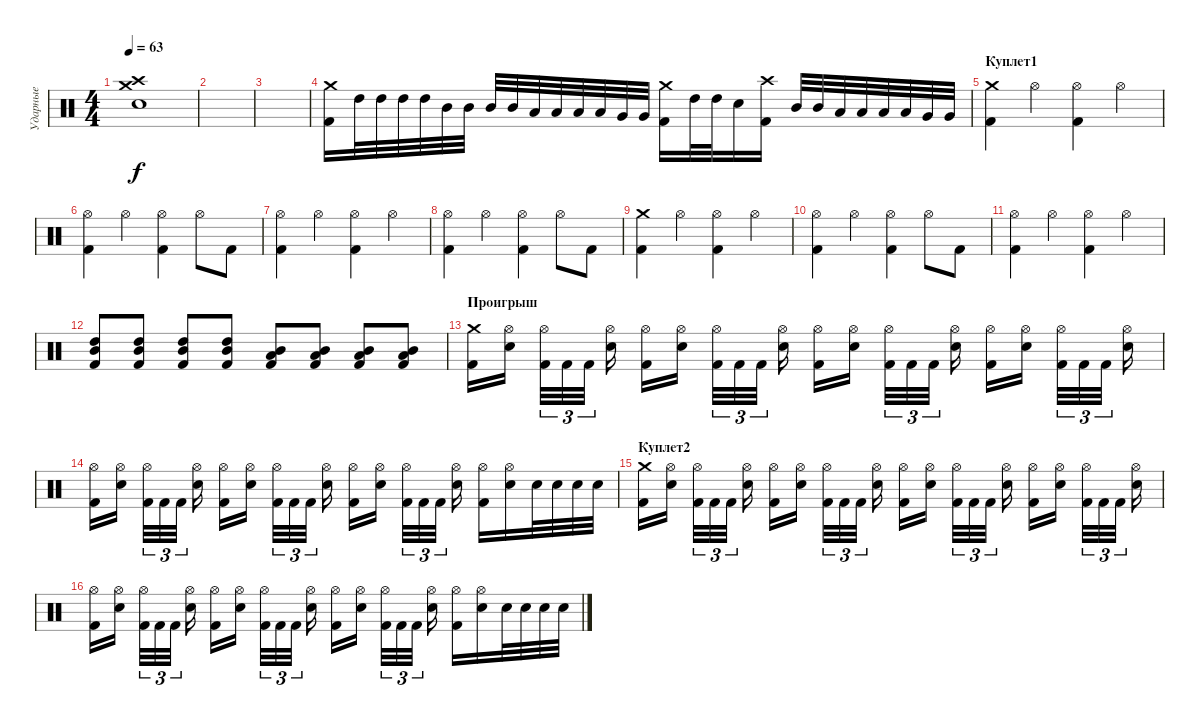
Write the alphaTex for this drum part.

\track ("Ударные" "Ударные") {instrument percussion}
\staff {score}
\articulation defaults
\ts (4 4)
\tempo 63
\clef neutral
\ks c
("Crash high (hit)" "Crash medium (hit)" "Snare (hit) 2").1{dy f} |
|
|
("Kick (hit) 2" "Crash medium (hit)").16 "High Tom (hit)".32 "High Tom (hit)".32 "High Tom (hit)".32 "High Tom (hit)".32 "Mid Tom (hit)".32 "Mid Tom (hit)".32 "Mid Tom (hit)".32 "Mid Tom (hit)".32 "Low Tom (hit)".32 "Low Tom (hit)".32 "Low Tom (hit)".32 "Low Tom (hit)".32 "Very Low Tom (hit)".32 "Very Low Tom (hit)".32 ("Kick (hit) 2" "Crash medium (hit)").16 "High Tom (hit)".32 "High Tom (hit)".32 "Electric Snare (hit)".16 ("Kick (hit) 2" "Crash high (hit)").16 "Mid Tom (hit)".32 "Mid Tom (hit)".32 "Low Tom (hit)".32 "Low Tom (hit)".32 "Low Tom (hit)".32 "Low Tom (hit)".32 "Very Low Tom (hit)".32 "Very Low Tom (hit)".32 |
\section ("" "Куплет1")
("Kick (hit) 2" "Crash medium (hit)").4 "Hi-Hat (open)".4 ("Kick (hit) 2" "Hi-Hat (open)").4 "Hi-Hat (open)".4 |
("Kick (hit) 2" "Hi-Hat (open)").4 "Hi-Hat (open)".4 ("Kick (hit) 2" "Hi-Hat (open)").4 "Hi-Hat (open)".8 "Kick (hit) 2".8 |
("Kick (hit) 2" "Hi-Hat (open)").4 "Hi-Hat (open)".4 ("Kick (hit) 2" "Hi-Hat (open)").4 "Hi-Hat (open)".4 |
("Kick (hit) 2" "Hi-Hat (open)").4 "Hi-Hat (open)".4 ("Kick (hit) 2" "Hi-Hat (open)").4 "Hi-Hat (open)".8 "Kick (hit) 2".8 |
("Kick (hit) 2" "Crash medium (hit)").4 "Hi-Hat (open)".4 ("Kick (hit) 2" "Hi-Hat (open)").4 "Hi-Hat (open)".4 |
("Kick (hit) 2" "Hi-Hat (open)").4 "Hi-Hat (open)".4 ("Kick (hit) 2" "Hi-Hat (open)").4 "Hi-Hat (open)".8 "Kick (hit) 2".8 |
("Kick (hit) 2" "Hi-Hat (open)").4 "Hi-Hat (open)".4 ("Kick (hit) 2" "Hi-Hat (open)").4 "Hi-Hat (open)".4 |
("Kick (hit) 2" "High Tom (hit)" "Mid Tom (hit)").8 ("Kick (hit) 2" "High Tom (hit)" "Mid Tom (hit)").8 ("Kick (hit) 2" "High Tom (hit)" "Mid Tom (hit)").8 ("Kick (hit) 2" "High Tom (hit)" "Mid Tom (hit)").8 ("Kick (hit) 2" "Mid Tom (hit)" "Low Tom (hit)").8 ("Kick (hit) 2" "Mid Tom (hit)" "Low Tom (hit)").8 ("Kick (hit) 2" "Mid Tom (hit)" "Low Tom (hit)").8 ("Kick (hit) 2" "Mid Tom (hit)" "Low Tom (hit)").8 |
\section ("" "Проигрыш")
("Kick (hit) 2" "Crash medium (hit)").16 ("Snare (hit) 2" "Hi-Hat (open)").16 ("Kick (hit) 2" "Hi-Hat (open)").32{tu (3 2)} "Kick (hit) 2".32{tu (3 2)} "Kick (hit) 2".32{tu (3 2)} ("Snare (hit) 2" "Hi-Hat (open)").16 ("Kick (hit) 2" "Hi-Hat (open)").16 ("Snare (hit) 2" "Hi-Hat (open)").16 ("Kick (hit) 2" "Hi-Hat (open)").32{tu (3 2)} "Kick (hit) 2".32{tu (3 2)} "Kick (hit) 2".32{tu (3 2)} ("Snare (hit) 2" "Hi-Hat (open)").16 ("Kick (hit) 2" "Hi-Hat (open)").16 ("Snare (hit) 2" "Hi-Hat (open)").16 ("Kick (hit) 2" "Hi-Hat (open)").32{tu (3 2)} "Kick (hit) 2".32{tu (3 2)} "Kick (hit) 2".32{tu (3 2)} ("Snare (hit) 2" "Hi-Hat (open)").16 ("Kick (hit) 2" "Hi-Hat (open)").16 ("Snare (hit) 2" "Hi-Hat (open)").16 ("Kick (hit) 2" "Hi-Hat (open)").32{tu (3 2)} "Kick (hit) 2".32{tu (3 2)} "Kick (hit) 2".32{tu (3 2)} ("Snare (hit) 2" "Hi-Hat (open)").16 |
("Kick (hit) 2" "Hi-Hat (open)").16 ("Snare (hit) 2" "Hi-Hat (open)").16 ("Kick (hit) 2" "Hi-Hat (open)").32{tu (3 2)} "Kick (hit) 2".32{tu (3 2)} "Kick (hit) 2".32{tu (3 2)} ("Snare (hit) 2" "Hi-Hat (open)").16 ("Kick (hit) 2" "Hi-Hat (open)").16 ("Snare (hit) 2" "Hi-Hat (open)").16 ("Kick (hit) 2" "Hi-Hat (open)").32{tu (3 2)} "Kick (hit) 2".32{tu (3 2)} "Kick (hit) 2".32{tu (3 2)} ("Snare (hit) 2" "Hi-Hat (open)").16 ("Kick (hit) 2" "Hi-Hat (open)").16 ("Snare (hit) 2" "Hi-Hat (open)").16 ("Kick (hit) 2" "Hi-Hat (open)").32{tu (3 2)} "Kick (hit) 2".32{tu (3 2)} "Kick (hit) 2".32{tu (3 2)} ("Snare (hit) 2" "Hi-Hat (open)").16 ("Kick (hit) 2" "Hi-Hat (open)").16 ("Snare (hit) 2" "Hi-Hat (open)").16 "Snare (hit) 2".32 "Snare (hit) 2".32 "Snare (hit) 2".32 "Snare (hit) 2".32 |
\section ("" "Куплет2")
("Kick (hit) 2" "Crash medium (hit)").16 ("Snare (hit) 2" "Hi-Hat (open)").16 ("Kick (hit) 2" "Hi-Hat (open)").32{tu (3 2)} "Kick (hit) 2".32{tu (3 2)} "Kick (hit) 2".32{tu (3 2)} ("Snare (hit) 2" "Hi-Hat (open)").16 ("Kick (hit) 2" "Hi-Hat (open)").16 ("Snare (hit) 2" "Hi-Hat (open)").16 ("Kick (hit) 2" "Hi-Hat (open)").32{tu (3 2)} "Kick (hit) 2".32{tu (3 2)} "Kick (hit) 2".32{tu (3 2)} ("Snare (hit) 2" "Hi-Hat (open)").16 ("Kick (hit) 2" "Hi-Hat (open)").16 ("Snare (hit) 2" "Hi-Hat (open)").16 ("Kick (hit) 2" "Hi-Hat (open)").32{tu (3 2)} "Kick (hit) 2".32{tu (3 2)} "Kick (hit) 2".32{tu (3 2)} ("Snare (hit) 2" "Hi-Hat (open)").16 ("Kick (hit) 2" "Hi-Hat (open)").16 ("Snare (hit) 2" "Hi-Hat (open)").16 ("Kick (hit) 2" "Hi-Hat (open)").32{tu (3 2)} "Kick (hit) 2".32{tu (3 2)} "Kick (hit) 2".32{tu (3 2)} ("Snare (hit) 2" "Hi-Hat (open)").16 |
("Kick (hit) 2" "Hi-Hat (open)").16 ("Snare (hit) 2" "Hi-Hat (open)").16 ("Kick (hit) 2" "Hi-Hat (open)").32{tu (3 2)} "Kick (hit) 2".32{tu (3 2)} "Kick (hit) 2".32{tu (3 2)} ("Snare (hit) 2" "Hi-Hat (open)").16 ("Kick (hit) 2" "Hi-Hat (open)").16 ("Snare (hit) 2" "Hi-Hat (open)").16 ("Kick (hit) 2" "Hi-Hat (open)").32{tu (3 2)} "Kick (hit) 2".32{tu (3 2)} "Kick (hit) 2".32{tu (3 2)} ("Snare (hit) 2" "Hi-Hat (open)").16 ("Kick (hit) 2" "Hi-Hat (open)").16 ("Snare (hit) 2" "Hi-Hat (open)").16 ("Kick (hit) 2" "Hi-Hat (open)").32{tu (3 2)} "Kick (hit) 2".32{tu (3 2)} "Kick (hit) 2".32{tu (3 2)} ("Snare (hit) 2" "Hi-Hat (open)").16 ("Kick (hit) 2" "Hi-Hat (open)").16 ("Snare (hit) 2" "Hi-Hat (open)").16 "Snare (hit) 2".32 "Snare (hit) 2".32 "Snare (hit) 2".32 "Snare (hit) 2".32
